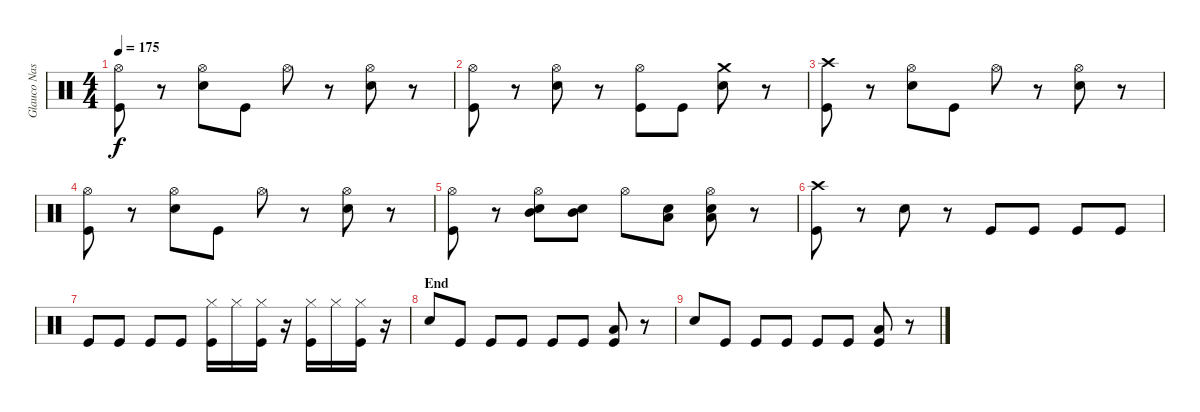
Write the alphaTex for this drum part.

\track ("Glauco Nastácia" "Glauco Nas") {instrument percussion}
\staff {score}
\articulation defaults
\ts (4 4)
\tempo 175
\clef neutral
\ks c
("Hi-Hat (open)" "Kick (hit)").8{dy f} r.8 ("Hi-Hat (open)" "Electric Snare (hit)").8 "Kick (hit)".8 "Hi-Hat (open)".8 r.8 ("Hi-Hat (open)" "Electric Snare (hit)").8 r.8 |
("Hi-Hat (open)" "Kick (hit)").8 r.8 ("Hi-Hat (open)" "Electric Snare (hit)").8 r.8 ("Hi-Hat (open)" "Kick (hit)").8 "Kick (hit)".8 ("Crash medium (hit)" "Electric Snare (hit)").8 r.8 |
("Crash high (hit)" "Kick (hit)").8 r.8 ("Hi-Hat (open)" "Electric Snare (hit)").8 "Kick (hit)".8 "Hi-Hat (open)".8 r.8 ("Hi-Hat (open)" "Electric Snare (hit)").8 r.8 |
("Hi-Hat (open)" "Kick (hit)").8 r.8 ("Hi-Hat (open)" "Electric Snare (hit)").8 "Kick (hit)".8 "Hi-Hat (open)".8 r.8 ("Hi-Hat (open)" "Electric Snare (hit)").8 r.8 |
("Hi-Hat (open)" "Kick (hit)").8 r.8 ("Hi-Hat (open)" "Mid Tom (hit)" "Electric Snare (hit)").8 ("Mid Tom (hit)" "Electric Snare (hit)").8 "Hi-Hat (open)".8 ("Low Tom (hit)" "Electric Snare (hit)").8 ("Hi-Hat (open)" "Low Tom (hit)" "Electric Snare (hit)").8 r.8 |
("Crash high (hit)" "Kick (hit)").8 r.8 "Electric Snare (hit)".8 r.8 "Kick (hit)".8 "Kick (hit)".8 "Kick (hit)".8 "Kick (hit)".8 |
"Kick (hit)".8 "Kick (hit)".8 "Kick (hit)".8 "Kick (hit)".8 ("Hi-Hat (closed)" "Kick (hit)").16 "Hi-Hat (closed)".16 ("Hi-Hat (closed)" "Kick (hit)").16 r.16 ("Hi-Hat (closed)" "Kick (hit)").16 "Hi-Hat (closed)".16 ("Hi-Hat (closed)" "Kick (hit)").16 r.16 |
\section ("" "End")
"Electric Snare (hit)".8 "Kick (hit)".8 "Kick (hit)".8 "Kick (hit)".8 "Kick (hit)".8 "Kick (hit)".8 ("Low Floor Tom (hit)" "Kick (hit)").8 r.8 |
"Electric Snare (hit)".8 "Kick (hit)".8 "Kick (hit)".8 "Kick (hit)".8 "Kick (hit)".8 "Kick (hit)".8 ("Low Floor Tom (hit)" "Kick (hit)").8 r.8
